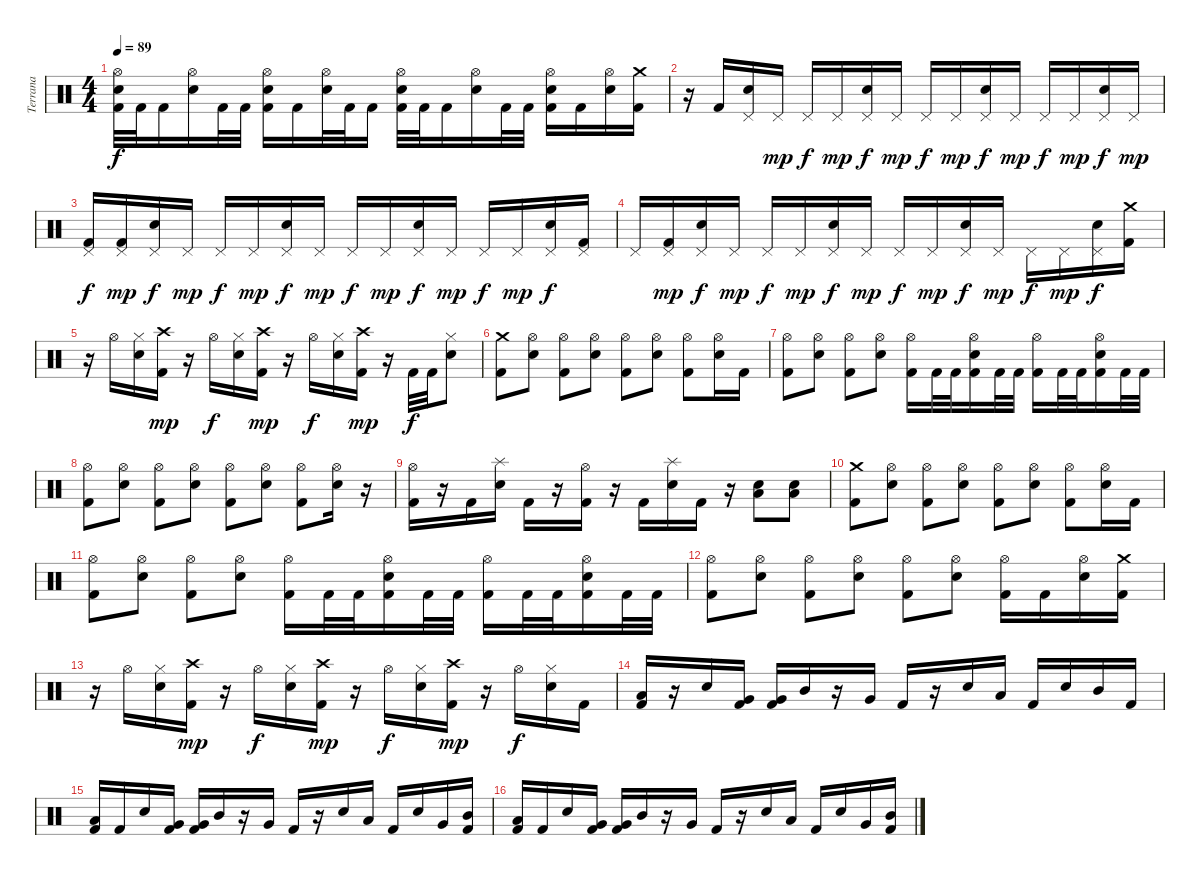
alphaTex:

\track ("Terrana" "Terrana") {instrument percussion}
\staff {score}
\articulation defaults
\ts (4 4)
\tempo 89
\clef neutral
\ks c
("Hi-Hat (open)" "Electric Snare (hit)" "Kick (hit) 2").32{dy f} "Kick (hit) 2".32 "Kick (hit) 2".16 ("Hi-Hat (open)" "Electric Snare (hit)").16 "Kick (hit) 2".32 "Kick (hit) 2".32 ("Hi-Hat (open)" "Electric Snare (hit)" "Kick (hit) 2").16 "Kick (hit) 2".16 ("Hi-Hat (open)" "Electric Snare (hit)").32 "Kick (hit) 2".32 "Kick (hit) 2".16 ("Hi-Hat (open)" "Electric Snare (hit)" "Kick (hit) 2").32 "Kick (hit) 2".32 "Kick (hit) 2".16 ("Hi-Hat (open)" "Electric Snare (hit)").16 "Kick (hit) 2".32 "Kick (hit) 2".32 ("Hi-Hat (open)" "Electric Snare (hit)" "Kick (hit) 2").16 "Kick (hit) 2".16 ("Hi-Hat (open)" "Electric Snare (hit)").16 ("Crash medium (hit)" "Kick (hit) 2").16 |
r.16 "Kick (hit) 2".16 ("Pedal Hi-Hat (hit)" "Electric Snare (hit)").16 "Pedal Hi-Hat (hit)".16{dy mp} "Pedal Hi-Hat (hit)".16{dy f} "Pedal Hi-Hat (hit)".16{dy mp} ("Pedal Hi-Hat (hit)" "Electric Snare (hit)").16{dy f} "Pedal Hi-Hat (hit)".16{dy mp} "Pedal Hi-Hat (hit)".16{dy f} "Pedal Hi-Hat (hit)".16{dy mp} ("Pedal Hi-Hat (hit)" "Electric Snare (hit)").16{dy f} "Pedal Hi-Hat (hit)".16{dy mp} "Pedal Hi-Hat (hit)".16{dy f} "Pedal Hi-Hat (hit)".16{dy mp} ("Pedal Hi-Hat (hit)" "Electric Snare (hit)").16{dy f} "Pedal Hi-Hat (hit)".16{dy mp} |
("Pedal Hi-Hat (hit)" "Kick (hit) 2").16{dy f} ("Pedal Hi-Hat (hit)" "Kick (hit) 2").16{dy mp} ("Pedal Hi-Hat (hit)" "Electric Snare (hit)").16{dy f} "Pedal Hi-Hat (hit)".16{dy mp} "Pedal Hi-Hat (hit)".16{dy f} "Pedal Hi-Hat (hit)".16{dy mp} ("Pedal Hi-Hat (hit)" "Electric Snare (hit)").16{dy f} "Pedal Hi-Hat (hit)".16{dy mp} "Pedal Hi-Hat (hit)".16{dy f} "Pedal Hi-Hat (hit)".16{dy mp} ("Pedal Hi-Hat (hit)" "Electric Snare (hit)").16{dy f} "Pedal Hi-Hat (hit)".16{dy mp} "Pedal Hi-Hat (hit)".16{dy f} "Pedal Hi-Hat (hit)".16{dy mp} ("Pedal Hi-Hat (hit)" "Electric Snare (hit)").16{dy f} ("Pedal Hi-Hat (hit)" "Kick (hit) 2").16 |
"Pedal Hi-Hat (hit)".16 ("Pedal Hi-Hat (hit)" "Kick (hit) 2").16{dy mp} ("Pedal Hi-Hat (hit)" "Electric Snare (hit)").16{dy f} "Pedal Hi-Hat (hit)".16{dy mp} "Pedal Hi-Hat (hit)".16{dy f} "Pedal Hi-Hat (hit)".16{dy mp} ("Pedal Hi-Hat (hit)" "Electric Snare (hit)").16{dy f} "Pedal Hi-Hat (hit)".16{dy mp} "Pedal Hi-Hat (hit)".16{dy f} "Pedal Hi-Hat (hit)".16{dy mp} ("Pedal Hi-Hat (hit)" "Electric Snare (hit)").16{dy f} "Pedal Hi-Hat (hit)".16{dy mp} "Pedal Hi-Hat (hit)".16{dy f} "Pedal Hi-Hat (hit)".16{dy mp} ("Pedal Hi-Hat (hit)" "Electric Snare (hit)").16{dy f} ("Crash medium (hit)" "Kick (hit) 2").16 |
r.16 "Hi-Hat (open)".16 ("Hi-Hat (closed)" "Electric Snare (hit)").16 ("Crash high (hit)" "Kick (hit) 2").16{dy mp} r.16 "Hi-Hat (open)".16{dy f} ("Hi-Hat (closed)" "Electric Snare (hit)").16 ("Crash high (hit)" "Kick (hit) 2").16{dy mp} r.16 "Hi-Hat (open)".16{dy f} ("Hi-Hat (closed)" "Electric Snare (hit)").16 ("Crash high (hit)" "Kick (hit) 2").16{dy mp} r.16 "Kick (hit) 2".32{dy f} "Kick (hit) 2".32 ("Hi-Hat (closed)" "Electric Snare (hit)").8 |
("Crash medium (hit)" "Kick (hit) 2").8 ("Hi-Hat (open)" "Electric Snare (hit)").8 ("Hi-Hat (open)" "Kick (hit) 2").8 ("Hi-Hat (open)" "Electric Snare (hit)").8 ("Hi-Hat (open)" "Kick (hit) 2").8 ("Hi-Hat (open)" "Electric Snare (hit)").8 ("Hi-Hat (open)" "Kick (hit) 2").8 ("Hi-Hat (open)" "Electric Snare (hit)").16 "Kick (hit) 2".16 |
("Hi-Hat (open)" "Kick (hit) 2").8 ("Hi-Hat (open)" "Electric Snare (hit)").8 ("Hi-Hat (open)" "Kick (hit) 2").8 ("Hi-Hat (open)" "Electric Snare (hit)").8 ("Hi-Hat (open)" "Kick (hit) 2").16 "Kick (hit) 2".32 "Kick (hit) 2".32 ("Hi-Hat (open)" "Electric Snare (hit)" "Kick (hit) 2").16 "Kick (hit) 2".32 "Kick (hit) 2".32 ("Hi-Hat (open)" "Kick (hit) 2").16 "Kick (hit) 2".32 "Kick (hit) 2".32 ("Hi-Hat (open)" "Electric Snare (hit)" "Kick (hit) 2").16 "Kick (hit) 2".32 "Kick (hit) 2".32 |
("Hi-Hat (open)" "Kick (hit) 2").8 ("Hi-Hat (open)" "Electric Snare (hit)").8 ("Hi-Hat (open)" "Kick (hit) 2").8 ("Hi-Hat (open)" "Electric Snare (hit)").8 ("Hi-Hat (open)" "Kick (hit) 2").8 ("Hi-Hat (open)" "Electric Snare (hit)").8 ("Hi-Hat (open)" "Kick (hit) 2").8 ("Hi-Hat (open)" "Electric Snare (hit)").16 r.16 |
("Hi-Hat (open)" "Kick (hit) 2").16 r.16 "Kick (hit) 2".16 ("Splash (hit)" "Electric Snare (hit)").16 "Kick (hit) 2".16 r.16 ("Hi-Hat (open)" "Kick (hit) 2").16 r.16 "Kick (hit) 2".16 ("Splash (hit)" "Electric Snare (hit)").16 "Kick (hit) 2".16 r.16 ("Low Floor Tom (hit)" "Electric Snare (hit)").8 ("Low Floor Tom (hit)" "Electric Snare (hit)").8 |
("Crash medium (hit)" "Kick (hit) 2").8 ("Hi-Hat (open)" "Electric Snare (hit)").8 ("Hi-Hat (open)" "Kick (hit) 2").8 ("Hi-Hat (open)" "Electric Snare (hit)").8 ("Hi-Hat (open)" "Kick (hit) 2").8 ("Hi-Hat (open)" "Electric Snare (hit)").8 ("Hi-Hat (open)" "Kick (hit) 2").8 ("Hi-Hat (open)" "Electric Snare (hit)").16 "Kick (hit) 2".16 |
("Hi-Hat (open)" "Kick (hit) 2").8 ("Hi-Hat (open)" "Electric Snare (hit)").8 ("Hi-Hat (open)" "Kick (hit) 2").8 ("Hi-Hat (open)" "Electric Snare (hit)").8 ("Hi-Hat (open)" "Kick (hit) 2").16 "Kick (hit) 2".32 "Kick (hit) 2".32 ("Hi-Hat (open)" "Electric Snare (hit)" "Kick (hit) 2").16 "Kick (hit) 2".32 "Kick (hit) 2".32 ("Hi-Hat (open)" "Kick (hit) 2").16 "Kick (hit) 2".32 "Kick (hit) 2".32 ("Hi-Hat (open)" "Electric Snare (hit)" "Kick (hit) 2").16 "Kick (hit) 2".32 "Kick (hit) 2".32 |
("Hi-Hat (open)" "Kick (hit) 2").8 ("Hi-Hat (open)" "Electric Snare (hit)").8 ("Hi-Hat (open)" "Kick (hit) 2").8 ("Hi-Hat (open)" "Electric Snare (hit)").8 ("Hi-Hat (open)" "Kick (hit) 2").8 ("Hi-Hat (open)" "Electric Snare (hit)").8 ("Hi-Hat (open)" "Kick (hit) 2").16 "Kick (hit) 2".16 ("Hi-Hat (open)" "Electric Snare (hit)").16 ("Crash medium (hit)" "Kick (hit) 2").16 |
r.16 "Hi-Hat (open)".16 ("Hi-Hat (closed)" "Electric Snare (hit)").16 ("Crash high (hit)" "Kick (hit) 2").16{dy mp} r.16 "Hi-Hat (open)".16{dy f} ("Hi-Hat (closed)" "Electric Snare (hit)").16 ("Crash high (hit)" "Kick (hit) 2").16{dy mp} r.16 "Hi-Hat (open)".16{dy f} ("Hi-Hat (closed)" "Electric Snare (hit)").16 ("Crash high (hit)" "Kick (hit) 2").16{dy mp} r.16 "Hi-Hat (open)".16{dy f} ("Hi-Hat (closed)" "Electric Snare (hit)").16 "Kick (hit) 2".16 |
("Low Floor Tom (hit)" "Kick (hit) 2").16 r.16 "Electric Snare (hit)".16 ("Very Low Tom (hit)" "Kick (hit) 2").16 ("Very Low Tom (hit)" "Kick (hit) 2").16 "Mid Tom (hit)".16 r.16 "Very Low Tom (hit)".16 "Kick (hit) 2".16 r.16 "Electric Snare (hit)".16 "Low Floor Tom (hit)".16 "Kick (hit) 2".16 "Electric Snare (hit)".16 "Mid Tom (hit)".16 "Kick (hit) 2".16 |
("Low Floor Tom (hit)" "Kick (hit) 2").16 "Kick (hit) 2".16 "Electric Snare (hit)".16 ("Very Low Tom (hit)" "Kick (hit) 2").16 ("Very Low Tom (hit)" "Kick (hit) 2").16 "Mid Tom (hit)".16 r.16 "Very Low Tom (hit)".16 "Kick (hit) 2".16 r.16 "Electric Snare (hit)".16 "Low Floor Tom (hit)".16 "Kick (hit) 2".16 "Electric Snare (hit)".16 "Very Low Tom (hit)".16 ("Mid Tom (hit)" "Kick (hit) 2").16 |
("Low Floor Tom (hit)" "Kick (hit) 2").16 "Kick (hit) 2".16 "Electric Snare (hit)".16 ("Very Low Tom (hit)" "Kick (hit) 2").16 ("Very Low Tom (hit)" "Kick (hit) 2").16 "Mid Tom (hit)".16 r.16 "Very Low Tom (hit)".16 "Kick (hit) 2".16 r.16 "Electric Snare (hit)".16 "Low Floor Tom (hit)".16 "Kick (hit) 2".16 "Electric Snare (hit)".16 "Very Low Tom (hit)".16 ("Mid Tom (hit)" "Kick (hit) 2").16
